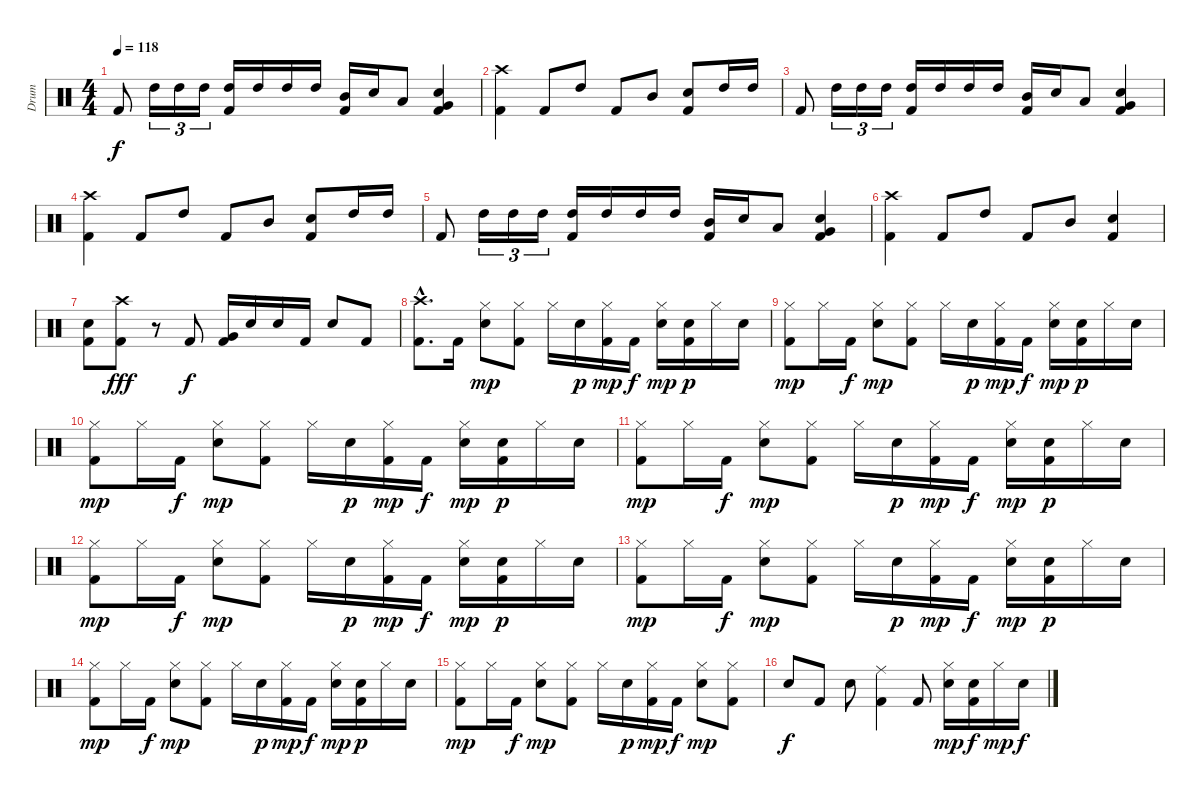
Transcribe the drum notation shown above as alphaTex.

\track ("Drum" "Drum") {instrument percussion}
\staff {score}
\articulation defaults
\ts (4 4)
\tempo 118
\clef neutral
\ks c "Kick (hit) 2".8{dy f} "High Tom (hit)".16{tu (3 2)} "High Tom (hit)".16{tu (3 2)} "High Tom (hit)".16{tu (3 2)}
("High Tom (hit)" "Kick (hit) 2").16 "High Tom (hit)".16 "High Tom (hit)".16 "High Tom (hit)".16 ("Mid Tom (hit)" "Kick (hit) 2").16 "Snare (hit) 2".16 "Low Tom (hit)".8 ("Snare (hit) 2" "Very Low Tom (hit)" "Kick (hit) 2").4 |
("Crash high (hit)" "Kick (hit) 2").4 "Kick (hit) 2".8 "High Tom (hit)".8 "Kick (hit) 2".8 "Mid Tom (hit)".8 ("Snare (hit) 2" "Kick (hit) 2").8 "High Tom (hit)".16 "High Tom (hit)".16 |
"Kick (hit) 2".8 "High Tom (hit)".16{tu (3 2)} "High Tom (hit)".16{tu (3 2)} "High Tom (hit)".16{tu (3 2)} ("High Tom (hit)" "Kick (hit) 2").16 "High Tom (hit)".16 "High Tom (hit)".16 "High Tom (hit)".16 ("Mid Tom (hit)" "Kick (hit) 2").16 "Snare (hit) 2".16 "Low Tom (hit)".8 ("Snare (hit) 2" "Very Low Tom (hit)" "Kick (hit) 2").4 |
("Crash high (hit)" "Kick (hit) 2").4 "Kick (hit) 2".8 "High Tom (hit)".8 "Kick (hit) 2".8 "Mid Tom (hit)".8 ("Snare (hit) 2" "Kick (hit) 2").8 "High Tom (hit)".16 "High Tom (hit)".16 |
"Kick (hit) 2".8 "High Tom (hit)".16{tu (3 2)} "High Tom (hit)".16{tu (3 2)} "High Tom (hit)".16{tu (3 2)} ("High Tom (hit)" "Kick (hit) 2").16 "High Tom (hit)".16 "High Tom (hit)".16 "High Tom (hit)".16 ("Mid Tom (hit)" "Kick (hit) 2").16 "Snare (hit) 2".16 "Low Tom (hit)".8 ("Snare (hit) 2" "Very Low Tom (hit)" "Kick (hit) 2").4 |
("Crash high (hit)" "Kick (hit) 2").4 "Kick (hit) 2".8 "High Tom (hit)".8 "Kick (hit) 2".8 "Mid Tom (hit)".8 ("Snare (hit) 2" "Kick (hit) 2").4 |
("Snare (hit) 2" "Kick (hit) 2").8 ("Crash high (hit)" "Kick (hit) 2").8{dy fff} r.8 "Kick (hit) 2".8{dy f} ("Very Low Tom (hit)" "Kick (hit) 2").16 "Snare (hit) 2".16 "Snare (hit) 2".16 "Kick (hit) 2".16 "Snare (hit) 2".8 "Kick (hit) 2".8 |
("Crash high (hit)"{hac} "Kick (hit) 2"{hac}).8{d} "Kick (hit) 2".16 ("Hi-Hat (closed)" "Snare (hit) 2").8{dy mp} ("Hi-Hat (closed)" "Kick (hit) 2").8 "Hi-Hat (closed)".16 "Snare (hit) 2".16{dy p} ("Hi-Hat (closed)" "Kick (hit) 2").16{dy mp} "Kick (hit) 2".16{dy f} ("Hi-Hat (closed)" "Snare (hit) 2").16{dy mp} ("Snare (hit) 2" "Kick (hit) 2").16{dy p} "Hi-Hat (closed)".16 "Snare (hit) 2".16 |
("Hi-Hat (closed)" "Kick (hit) 2").8{dy mp} "Hi-Hat (closed)".16 "Kick (hit) 2".16{dy f} ("Hi-Hat (closed)" "Snare (hit) 2").8{dy mp} ("Hi-Hat (closed)" "Kick (hit) 2").8 "Hi-Hat (closed)".16 "Snare (hit) 2".16{dy p} ("Hi-Hat (closed)" "Kick (hit) 2").16{dy mp} "Kick (hit) 2".16{dy f} ("Hi-Hat (closed)" "Snare (hit) 2").16{dy mp} ("Snare (hit) 2" "Kick (hit) 2").16{dy p} "Hi-Hat (closed)".16 "Snare (hit) 2".16 |
("Hi-Hat (closed)" "Kick (hit) 2").8{dy mp} "Hi-Hat (closed)".16 "Kick (hit) 2".16{dy f} ("Hi-Hat (closed)" "Snare (hit) 2").8{dy mp} ("Hi-Hat (closed)" "Kick (hit) 2").8 "Hi-Hat (closed)".16 "Snare (hit) 2".16{dy p} ("Hi-Hat (closed)" "Kick (hit) 2").16{dy mp} "Kick (hit) 2".16{dy f} ("Hi-Hat (closed)" "Snare (hit) 2").16{dy mp} ("Snare (hit) 2" "Kick (hit) 2").16{dy p} "Hi-Hat (closed)".16 "Snare (hit) 2".16 |
("Hi-Hat (closed)" "Kick (hit) 2").8{dy mp} "Hi-Hat (closed)".16 "Kick (hit) 2".16{dy f} ("Hi-Hat (closed)" "Snare (hit) 2").8{dy mp} ("Hi-Hat (closed)" "Kick (hit) 2").8 "Hi-Hat (closed)".16 "Snare (hit) 2".16{dy p} ("Hi-Hat (closed)" "Kick (hit) 2").16{dy mp} "Kick (hit) 2".16{dy f} ("Hi-Hat (closed)" "Snare (hit) 2").16{dy mp} ("Snare (hit) 2" "Kick (hit) 2").16{dy p} "Hi-Hat (closed)".16 "Snare (hit) 2".16 |
("Hi-Hat (closed)" "Kick (hit) 2").8{dy mp} "Hi-Hat (closed)".16 "Kick (hit) 2".16{dy f} ("Hi-Hat (closed)" "Snare (hit) 2").8{dy mp} ("Hi-Hat (closed)" "Kick (hit) 2").8 "Hi-Hat (closed)".16 "Snare (hit) 2".16{dy p} ("Hi-Hat (closed)" "Kick (hit) 2").16{dy mp} "Kick (hit) 2".16{dy f} ("Hi-Hat (closed)" "Snare (hit) 2").16{dy mp} ("Snare (hit) 2" "Kick (hit) 2").16{dy p} "Hi-Hat (closed)".16 "Snare (hit) 2".16 |
("Hi-Hat (closed)" "Kick (hit) 2").8{dy mp} "Hi-Hat (closed)".16 "Kick (hit) 2".16{dy f} ("Hi-Hat (closed)" "Snare (hit) 2").8{dy mp} ("Hi-Hat (closed)" "Kick (hit) 2").8 "Hi-Hat (closed)".16 "Snare (hit) 2".16{dy p} ("Hi-Hat (closed)" "Kick (hit) 2").16{dy mp} "Kick (hit) 2".16{dy f} ("Hi-Hat (closed)" "Snare (hit) 2").16{dy mp} ("Snare (hit) 2" "Kick (hit) 2").16{dy p} "Hi-Hat (closed)".16 "Snare (hit) 2".16 |
("Hi-Hat (closed)" "Kick (hit) 2").8{dy mp} "Hi-Hat (closed)".16 "Kick (hit) 2".16{dy f} ("Hi-Hat (closed)" "Snare (hit) 2").8{dy mp} ("Hi-Hat (closed)" "Kick (hit) 2").8 "Hi-Hat (closed)".16 "Snare (hit) 2".16{dy p} ("Hi-Hat (closed)" "Kick (hit) 2").16{dy mp} "Kick (hit) 2".16{dy f} ("Hi-Hat (closed)" "Snare (hit) 2").16{dy mp} ("Snare (hit) 2" "Kick (hit) 2").16{dy p} "Hi-Hat (closed)".16 "Snare (hit) 2".16 |
("Hi-Hat (closed)" "Kick (hit) 2").8{dy mp} "Hi-Hat (closed)".16 "Kick (hit) 2".16{dy f} ("Hi-Hat (closed)" "Snare (hit) 2").8{dy mp} ("Hi-Hat (closed)" "Kick (hit) 2").8 "Hi-Hat (closed)".16 "Snare (hit) 2".16{dy p} ("Hi-Hat (closed)" "Kick (hit) 2").16{dy mp} "Kick (hit) 2".16{dy f} ("Hi-Hat (closed)" "Snare (hit) 2").8{dy mp} ("Hi-Hat (closed)" "Kick (hit) 2").8 |
"Snare (hit) 2".8{dy f} "Kick (hit) 2".8 "Snare (hit) 2".8 ("Ride (middle)" "Kick (hit) 2").4 "Kick (hit) 2".8 ("Hi-Hat (closed)" "Snare (hit) 2").16{dy mp} ("Snare (hit) 2" "Kick (hit) 2").16{dy f} "Hi-Hat (closed)".16{dy mp} "Snare (hit) 2".16{dy f}
